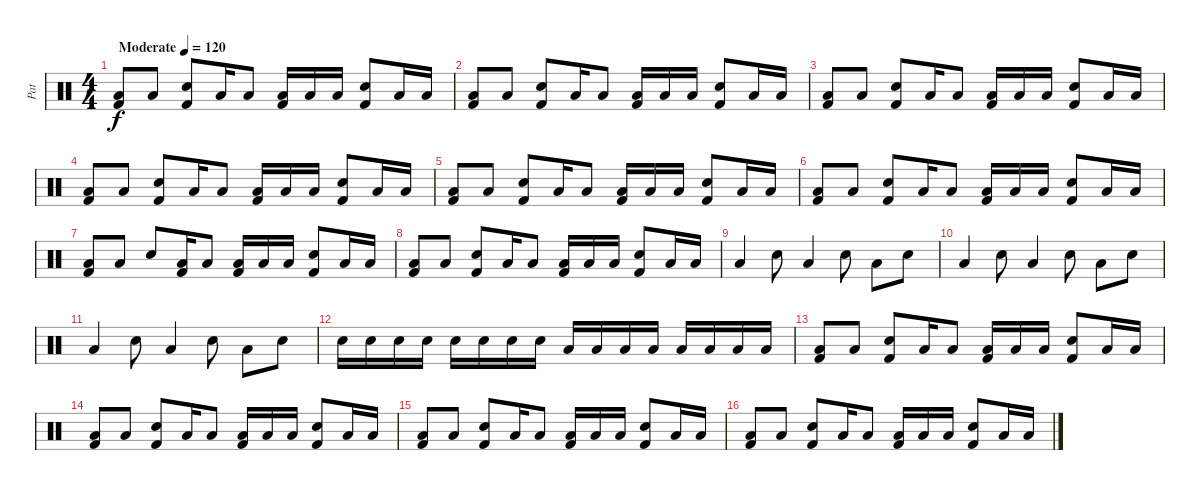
\track ("Pat" "Pat") {instrument percussion}
\staff {score}
\articulation defaults
\ts (4 4)
\tempo (120 "Moderate")
\clef neutral
\ks c
("Kick (hit) 2" "Low Tom (hit)").8{dy f} "Low Tom (hit)".8 ("Kick (hit) 2" "Snare (hit) 2").8 "Low Tom (hit)".16 "Low Tom (hit)".8 ("Kick (hit) 2" "Low Tom (hit)").16 "Low Tom (hit)".16 "Low Tom (hit)".16 ("Kick (hit) 2" "Snare (hit) 2").8 "Low Tom (hit)".16 "Low Tom (hit)".16 |
("Kick (hit) 2" "Low Tom (hit)").8 "Low Tom (hit)".8 ("Kick (hit) 2" "Snare (hit) 2").8 "Low Tom (hit)".16 "Low Tom (hit)".8 ("Kick (hit) 2" "Low Tom (hit)").16 "Low Tom (hit)".16 "Low Tom (hit)".16 ("Kick (hit) 2" "Snare (hit) 2").8 "Low Tom (hit)".16 "Low Tom (hit)".16 |
("Kick (hit) 2" "Low Tom (hit)").8 "Low Tom (hit)".8 ("Kick (hit) 2" "Snare (hit) 2").8 "Low Tom (hit)".16 "Low Tom (hit)".8 ("Kick (hit) 2" "Low Tom (hit)").16 "Low Tom (hit)".16 "Low Tom (hit)".16 ("Kick (hit) 2" "Snare (hit) 2").8 "Low Tom (hit)".16 "Low Tom (hit)".16 |
("Kick (hit) 2" "Low Tom (hit)").8 "Low Tom (hit)".8 ("Kick (hit) 2" "Snare (hit) 2").8 "Low Tom (hit)".16 "Low Tom (hit)".8 ("Kick (hit) 2" "Low Tom (hit)").16 "Low Tom (hit)".16 "Low Tom (hit)".16 ("Kick (hit) 2" "Snare (hit) 2").8 "Low Tom (hit)".16 "Low Tom (hit)".16 |
("Kick (hit) 2" "Low Tom (hit)").8 "Low Tom (hit)".8 ("Kick (hit) 2" "Snare (hit) 2").8 "Low Tom (hit)".16 "Low Tom (hit)".8 ("Kick (hit) 2" "Low Tom (hit)").16 "Low Tom (hit)".16 "Low Tom (hit)".16 ("Kick (hit) 2" "Snare (hit) 2").8 "Low Tom (hit)".16 "Low Tom (hit)".16 |
("Kick (hit) 2" "Low Tom (hit)").8 "Low Tom (hit)".8 ("Kick (hit) 2" "Snare (hit) 2").8 "Low Tom (hit)".16 "Low Tom (hit)".8 ("Kick (hit) 2" "Low Tom (hit)").16 "Low Tom (hit)".16 "Low Tom (hit)".16 ("Kick (hit) 2" "Snare (hit) 2").8 "Low Tom (hit)".16 "Low Tom (hit)".16 |
("Kick (hit) 2" "Low Tom (hit)").8 "Low Tom (hit)".8 "Snare (hit) 2".8 ("Kick (hit) 2" "Low Tom (hit)").16 "Low Tom (hit)".8 ("Kick (hit) 2" "Low Tom (hit)").16 "Low Tom (hit)".16 "Low Tom (hit)".16 ("Kick (hit) 2" "Snare (hit) 2").8 "Low Tom (hit)".16 "Low Tom (hit)".16 |
("Kick (hit) 2" "Low Tom (hit)").8 "Low Tom (hit)".8 ("Kick (hit) 2" "Snare (hit) 2").8 "Low Tom (hit)".16 "Low Tom (hit)".8 ("Kick (hit) 2" "Low Tom (hit)").16 "Low Tom (hit)".16 "Low Tom (hit)".16 ("Kick (hit) 2" "Snare (hit) 2").8 "Low Tom (hit)".16 "Low Tom (hit)".16 |
"Low Tom (hit)".4 "Snare (hit) 2".8 "Low Tom (hit)".4 "Snare (hit) 2".8 "Low Tom (hit)".8 "Snare (hit) 2".8 |
"Low Tom (hit)".4 "Snare (hit) 2".8 "Low Tom (hit)".4 "Snare (hit) 2".8 "Low Tom (hit)".8 "Snare (hit) 2".8 |
"Low Tom (hit)".4 "Snare (hit) 2".8 "Low Tom (hit)".4 "Snare (hit) 2".8 "Low Tom (hit)".8 "Snare (hit) 2".8 |
"Snare (hit) 2".16 "Snare (hit) 2".16 "Snare (hit) 2".16 "Snare (hit) 2".16 "Snare (hit) 2".16 "Snare (hit) 2".16 "Snare (hit) 2".16 "Snare (hit) 2".16 "Low Tom (hit)".16 "Low Tom (hit)".16 "Low Tom (hit)".16 "Low Tom (hit)".16 "Low Tom (hit)".16 "Low Tom (hit)".16 "Low Tom (hit)".16 "Low Tom (hit)".16 |
("Kick (hit) 2" "Low Tom (hit)").8 "Low Tom (hit)".8 ("Kick (hit) 2" "Snare (hit) 2").8 "Low Tom (hit)".16 "Low Tom (hit)".8 ("Kick (hit) 2" "Low Tom (hit)").16 "Low Tom (hit)".16 "Low Tom (hit)".16 ("Kick (hit) 2" "Snare (hit) 2").8 "Low Tom (hit)".16 "Low Tom (hit)".16 |
("Kick (hit) 2" "Low Tom (hit)").8 "Low Tom (hit)".8 ("Kick (hit) 2" "Snare (hit) 2").8 "Low Tom (hit)".16 "Low Tom (hit)".8 ("Kick (hit) 2" "Low Tom (hit)").16 "Low Tom (hit)".16 "Low Tom (hit)".16 ("Kick (hit) 2" "Snare (hit) 2").8 "Low Tom (hit)".16 "Low Tom (hit)".16 |
("Kick (hit) 2" "Low Tom (hit)").8 "Low Tom (hit)".8 ("Kick (hit) 2" "Snare (hit) 2").8 "Low Tom (hit)".16 "Low Tom (hit)".8 ("Kick (hit) 2" "Low Tom (hit)").16 "Low Tom (hit)".16 "Low Tom (hit)".16 ("Kick (hit) 2" "Snare (hit) 2").8 "Low Tom (hit)".16 "Low Tom (hit)".16 |
("Kick (hit) 2" "Low Tom (hit)").8 "Low Tom (hit)".8 ("Kick (hit) 2" "Snare (hit) 2").8 "Low Tom (hit)".16 "Low Tom (hit)".8 ("Kick (hit) 2" "Low Tom (hit)").16 "Low Tom (hit)".16 "Low Tom (hit)".16 ("Kick (hit) 2" "Snare (hit) 2").8 "Low Tom (hit)".16 "Low Tom (hit)".16
